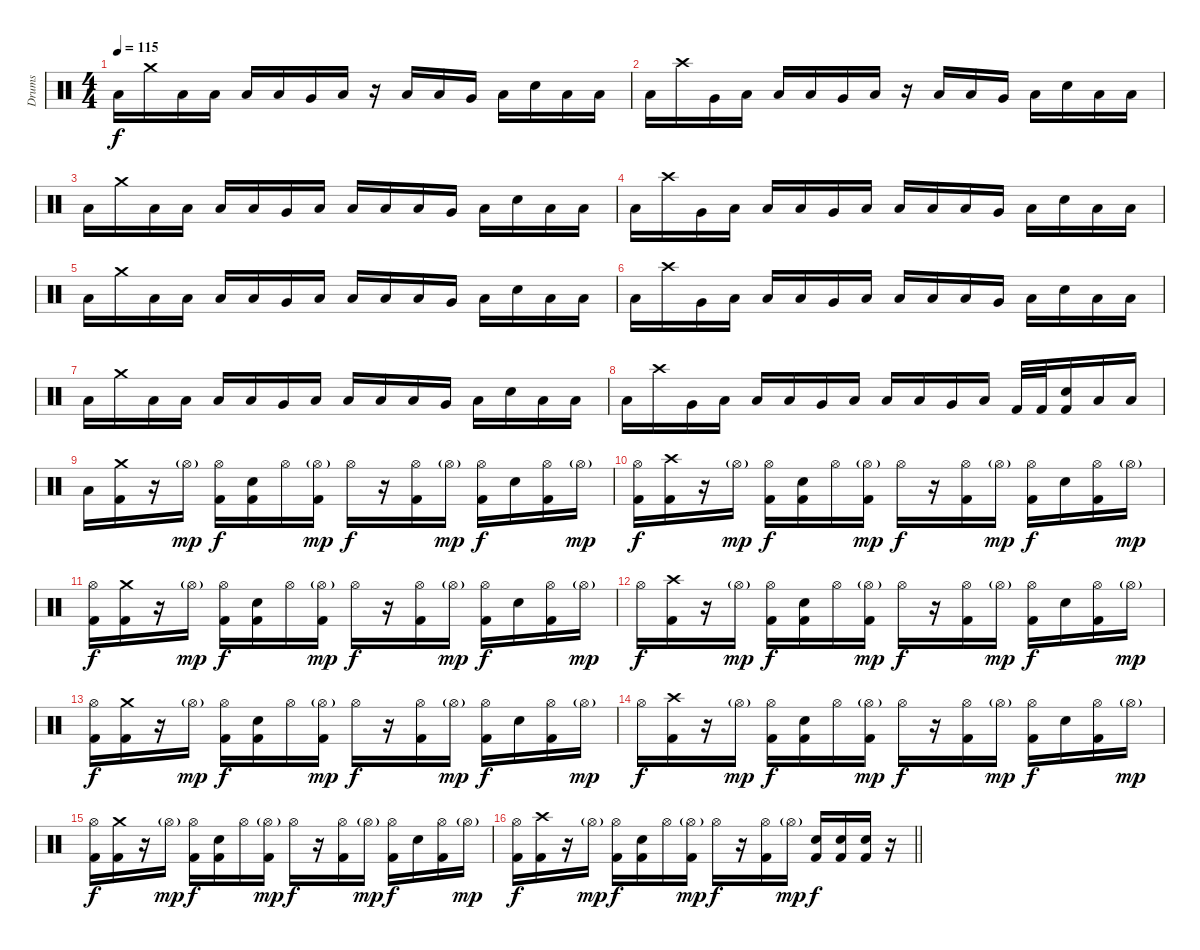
\track ("Drums" "Drums") {instrument percussion}
\staff {score}
\articulation defaults
\ts (4 4)
\tempo 115
\clef neutral
\ks c "Low Floor Tom (hit)".16{dy f} "Crash medium (hit)".16 "Low Floor Tom (hit)".16 "Low Floor Tom (hit)".16 "Low Floor Tom (hit)".16 "Low Floor Tom (hit)".16 "Very Low Tom (hit)".16 "Low Floor Tom (hit)".16
r.16 "Low Floor Tom (hit)".16 "Low Floor Tom (hit)".16 "Very Low Tom (hit)".16 "Low Floor Tom (hit)".16 "Snare (hit) 2".16 "Low Floor Tom (hit)".16 "Low Floor Tom (hit)".16 |
"Low Floor Tom (hit)".16 "Crash high (hit)".16 "Very Low Tom (hit)".16 "Low Floor Tom (hit)".16 "Low Floor Tom (hit)".16 "Low Floor Tom (hit)".16 "Very Low Tom (hit)".16 "Low Floor Tom (hit)".16 r.16 "Low Floor Tom (hit)".16 "Low Floor Tom (hit)".16 "Very Low Tom (hit)".16 "Low Floor Tom (hit)".16 "Snare (hit) 2".16 "Low Floor Tom (hit)".16 "Low Floor Tom (hit)".16 |
"Low Floor Tom (hit)".16 "Crash medium (hit)".16 "Low Floor Tom (hit)".16 "Low Floor Tom (hit)".16 "Low Floor Tom (hit)".16 "Low Floor Tom (hit)".16 "Very Low Tom (hit)".16 "Low Floor Tom (hit)".16 "Low Floor Tom (hit)".16 "Low Floor Tom (hit)".16 "Low Floor Tom (hit)".16 "Very Low Tom (hit)".16 "Low Floor Tom (hit)".16 "Snare (hit) 2".16 "Low Floor Tom (hit)".16 "Low Floor Tom (hit)".16 |
"Low Floor Tom (hit)".16 "Crash high (hit)".16 "Very Low Tom (hit)".16 "Low Floor Tom (hit)".16 "Low Floor Tom (hit)".16 "Low Floor Tom (hit)".16 "Very Low Tom (hit)".16 "Low Floor Tom (hit)".16 "Low Floor Tom (hit)".16 "Low Floor Tom (hit)".16 "Low Floor Tom (hit)".16 "Very Low Tom (hit)".16 "Low Floor Tom (hit)".16 "Snare (hit) 2".16 "Low Floor Tom (hit)".16 "Low Floor Tom (hit)".16 |
"Low Floor Tom (hit)".16 "Crash medium (hit)".16 "Low Floor Tom (hit)".16 "Low Floor Tom (hit)".16 "Low Floor Tom (hit)".16 "Low Floor Tom (hit)".16 "Very Low Tom (hit)".16 "Low Floor Tom (hit)".16 "Low Floor Tom (hit)".16 "Low Floor Tom (hit)".16 "Low Floor Tom (hit)".16 "Very Low Tom (hit)".16 "Low Floor Tom (hit)".16 "Snare (hit) 2".16 "Low Floor Tom (hit)".16 "Low Floor Tom (hit)".16 |
"Low Floor Tom (hit)".16 "Crash high (hit)".16 "Very Low Tom (hit)".16 "Low Floor Tom (hit)".16 "Low Floor Tom (hit)".16 "Low Floor Tom (hit)".16 "Very Low Tom (hit)".16 "Low Floor Tom (hit)".16 "Low Floor Tom (hit)".16 "Low Floor Tom (hit)".16 "Low Floor Tom (hit)".16 "Very Low Tom (hit)".16 "Low Floor Tom (hit)".16 "Snare (hit) 2".16 "Low Floor Tom (hit)".16 "Low Floor Tom (hit)".16 |
"Low Floor Tom (hit)".16 "Crash medium (hit)".16 "Low Floor Tom (hit)".16 "Low Floor Tom (hit)".16 "Low Floor Tom (hit)".16 "Low Floor Tom (hit)".16 "Very Low Tom (hit)".16 "Low Floor Tom (hit)".16 "Low Floor Tom (hit)".16 "Low Floor Tom (hit)".16 "Low Floor Tom (hit)".16 "Very Low Tom (hit)".16 "Low Floor Tom (hit)".16 "Snare (hit) 2".16 "Low Floor Tom (hit)".16 "Low Floor Tom (hit)".16 |
"Low Floor Tom (hit)".16 "Crash high (hit)".16 "Very Low Tom (hit)".16 "Low Floor Tom (hit)".16 "Low Floor Tom (hit)".16 "Low Floor Tom (hit)".16 "Very Low Tom (hit)".16 "Low Floor Tom (hit)".16 "Low Floor Tom (hit)".16 "Low Floor Tom (hit)".16 "Very Low Tom (hit)".16 "Low Floor Tom (hit)".16 "Kick (hit) 2".32 "Kick (hit) 2".32 ("Snare (hit) 2" "Kick (hit) 2").16 "Low Floor Tom (hit)".16 "Low Floor Tom (hit)".16 |
"Low Floor Tom (hit)".16 ("Crash medium (hit)" "Kick (hit) 2").16 r.16 "Hi-Hat (open)"{g}.16{dy mp} ("Hi-Hat (open)" "Kick (hit) 2").16{dy f} ("Snare (hit) 2" "Kick (hit) 2").16 "Hi-Hat (open)".16 ("Hi-Hat (open)"{g} "Kick (hit) 2").16{dy mp} "Hi-Hat (open)".16{dy f} r.16 ("Hi-Hat (open)" "Kick (hit) 2").16 "Hi-Hat (open)"{g}.16{dy mp} ("Hi-Hat (open)" "Kick (hit) 2").16{dy f} "Snare (hit) 2".16 ("Hi-Hat (open)" "Kick (hit) 2").16 "Hi-Hat (open)"{g}.16{dy mp} |
("Hi-Hat (open)" "Kick (hit) 2").16{dy f} ("Crash high (hit)" "Kick (hit) 2").16 r.16 "Hi-Hat (open)"{g}.16{dy mp} ("Hi-Hat (open)" "Kick (hit) 2").16{dy f} ("Snare (hit) 2" "Kick (hit) 2").16 "Hi-Hat (open)".16 ("Hi-Hat (open)"{g} "Kick (hit) 2").16{dy mp} "Hi-Hat (open)".16{dy f} r.16 ("Hi-Hat (open)" "Kick (hit) 2").16 "Hi-Hat (open)"{g}.16{dy mp} ("Hi-Hat (open)" "Kick (hit) 2").16{dy f} "Snare (hit) 2".16 ("Hi-Hat (open)" "Kick (hit) 2").16 "Hi-Hat (open)"{g}.16{dy mp} |
("Hi-Hat (open)" "Kick (hit) 2").16{dy f} ("Crash medium (hit)" "Kick (hit) 2").16 r.16 "Hi-Hat (open)"{g}.16{dy mp} ("Hi-Hat (open)" "Kick (hit) 2").16{dy f} ("Snare (hit) 2" "Kick (hit) 2").16 "Hi-Hat (open)".16 ("Hi-Hat (open)"{g} "Kick (hit) 2").16{dy mp} "Hi-Hat (open)".16{dy f} r.16 ("Hi-Hat (open)" "Kick (hit) 2").16 "Hi-Hat (open)"{g}.16{dy mp} ("Hi-Hat (open)" "Kick (hit) 2").16{dy f} "Snare (hit) 2".16 ("Hi-Hat (open)" "Kick (hit) 2").16 "Hi-Hat (open)"{g}.16{dy mp} |
"Hi-Hat (open)".16{dy f} ("Crash high (hit)" "Kick (hit) 2").16 r.16 "Hi-Hat (open)"{g}.16{dy mp} ("Hi-Hat (open)" "Kick (hit) 2").16{dy f} ("Snare (hit) 2" "Kick (hit) 2").16 "Hi-Hat (open)".16 ("Hi-Hat (open)"{g} "Kick (hit) 2").16{dy mp} "Hi-Hat (open)".16{dy f} r.16 ("Hi-Hat (open)" "Kick (hit) 2").16 "Hi-Hat (open)"{g}.16{dy mp} ("Hi-Hat (open)" "Kick (hit) 2").16{dy f} "Snare (hit) 2".16 ("Hi-Hat (open)" "Kick (hit) 2").16 "Hi-Hat (open)"{g}.16{dy mp} |
("Hi-Hat (open)" "Kick (hit) 2").16{dy f} ("Crash medium (hit)" "Kick (hit) 2").16 r.16 "Hi-Hat (open)"{g}.16{dy mp} ("Hi-Hat (open)" "Kick (hit) 2").16{dy f} ("Snare (hit) 2" "Kick (hit) 2").16 "Hi-Hat (open)".16 ("Hi-Hat (open)"{g} "Kick (hit) 2").16{dy mp} "Hi-Hat (open)".16{dy f} r.16 ("Hi-Hat (open)" "Kick (hit) 2").16 "Hi-Hat (open)"{g}.16{dy mp} ("Hi-Hat (open)" "Kick (hit) 2").16{dy f} "Snare (hit) 2".16 ("Hi-Hat (open)" "Kick (hit) 2").16 "Hi-Hat (open)"{g}.16{dy mp} |
"Hi-Hat (open)".16{dy f} ("Crash high (hit)" "Kick (hit) 2").16 r.16 "Hi-Hat (open)"{g}.16{dy mp} ("Hi-Hat (open)" "Kick (hit) 2").16{dy f} ("Snare (hit) 2" "Kick (hit) 2").16 "Hi-Hat (open)".16 ("Hi-Hat (open)"{g} "Kick (hit) 2").16{dy mp} "Hi-Hat (open)".16{dy f} r.16 ("Hi-Hat (open)" "Kick (hit) 2").16 "Hi-Hat (open)"{g}.16{dy mp} ("Hi-Hat (open)" "Kick (hit) 2").16{dy f} "Snare (hit) 2".16 ("Hi-Hat (open)" "Kick (hit) 2").16 "Hi-Hat (open)"{g}.16{dy mp} |
("Hi-Hat (open)" "Kick (hit) 2").16{dy f} ("Crash medium (hit)" "Kick (hit) 2").16 r.16 "Hi-Hat (open)"{g}.16{dy mp} ("Hi-Hat (open)" "Kick (hit) 2").16{dy f} ("Snare (hit) 2" "Kick (hit) 2").16 "Hi-Hat (open)".16 ("Hi-Hat (open)"{g} "Kick (hit) 2").16{dy mp} "Hi-Hat (open)".16{dy f} r.16 ("Hi-Hat (open)" "Kick (hit) 2").16 "Hi-Hat (open)"{g}.16{dy mp} ("Hi-Hat (open)" "Kick (hit) 2").16{dy f} "Snare (hit) 2".16 ("Hi-Hat (open)" "Kick (hit) 2").16 "Hi-Hat (open)"{g}.16{dy mp} |
\barLineRight lightlight
("Hi-Hat (open)" "Kick (hit) 2").16{dy f} ("Crash high (hit)" "Kick (hit) 2").16 r.16 "Hi-Hat (open)"{g}.16{dy mp} ("Hi-Hat (open)" "Kick (hit) 2").16{dy f} ("Snare (hit) 2" "Kick (hit) 2").16 "Hi-Hat (open)".16 ("Hi-Hat (open)"{g} "Kick (hit) 2").16{dy mp} "Hi-Hat (open)".16{dy f} r.16 ("Hi-Hat (open)" "Kick (hit) 2").16 "Hi-Hat (open)"{g}.16{dy mp} ("Snare (hit) 2" "Kick (hit) 2").16{dy f} ("Snare (hit) 2" "Kick (hit) 2").16 ("Snare (hit) 2" "Kick (hit) 2").16 r.16
